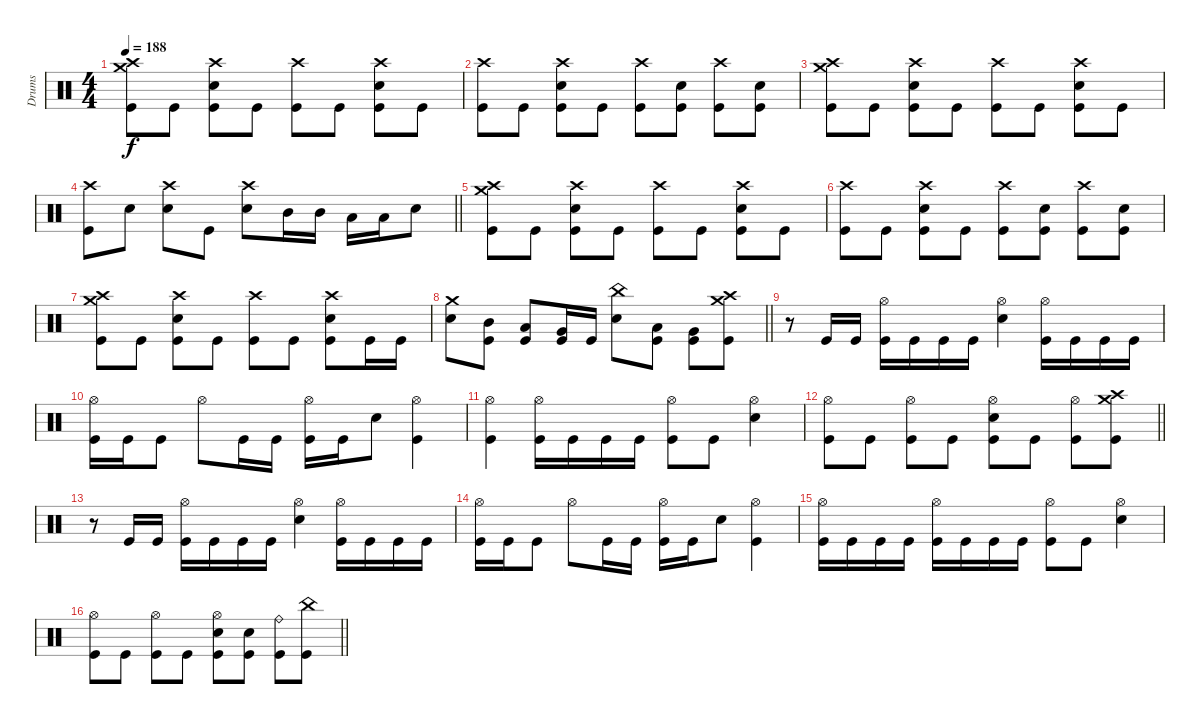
\track ("Drums" "Drums") {instrument percussion}
\staff
\articulation defaults
\ts (4 4)
\tempo 188
\clef neutral
\ks c
("Crash high (hit)" "Crash medium (hit)" "Kick (hit)").8{dy f} "Kick (hit)".8 ("Crash high (hit)" "Electric Snare (hit)" "Kick (hit)").8 "Kick (hit)".8 ("Crash high (hit)" "Kick (hit)").8 "Kick (hit)".8 ("Crash high (hit)" "Electric Snare (hit)" "Kick (hit)").8 "Kick (hit)".8 |
("Crash high (hit)" "Kick (hit)").8 "Kick (hit)".8 ("Crash high (hit)" "Electric Snare (hit)" "Kick (hit)").8 "Kick (hit)".8 ("Crash high (hit)" "Kick (hit)").8 ("Electric Snare (hit)" "Kick (hit)").8 ("Crash high (hit)" "Kick (hit)").8 ("Electric Snare (hit)" "Kick (hit)").8 |
("Crash high (hit)" "Crash medium (hit)" "Kick (hit)").8 "Kick (hit)".8 ("Crash high (hit)" "Electric Snare (hit)" "Kick (hit)").8 "Kick (hit)".8 ("Crash high (hit)" "Kick (hit)").8 "Kick (hit)".8 ("Crash high (hit)" "Electric Snare (hit)" "Kick (hit)").8 "Kick (hit)".8 |
\barLineRight lightlight
("Crash high (hit)" "Kick (hit)").8 "Electric Snare (hit)".8 ("Crash high (hit)" "Electric Snare (hit)").8 "Kick (hit)".8 ("Crash high (hit)" "Electric Snare (hit)").8 "Mid Tom (hit)".16 "Mid Tom (hit)".16 "Low Tom (hit)".16 "Low Tom (hit)".16 "Electric Snare (hit)".8 |
("Crash high (hit)" "Crash medium (hit)" "Kick (hit)").8 "Kick (hit)".8 ("Crash high (hit)" "Electric Snare (hit)" "Kick (hit)").8 "Kick (hit)".8 ("Crash high (hit)" "Kick (hit)").8 "Kick (hit)".8 ("Crash high (hit)" "Electric Snare (hit)" "Kick (hit)").8 "Kick (hit)".8 |
("Crash high (hit)" "Kick (hit)").8 "Kick (hit)".8 ("Crash high (hit)" "Electric Snare (hit)" "Kick (hit)").8 "Kick (hit)".8 ("Crash high (hit)" "Kick (hit)").8 ("Electric Snare (hit)" "Kick (hit)").8 ("Crash high (hit)" "Kick (hit)").8 ("Electric Snare (hit)" "Kick (hit)").8 |
("Crash high (hit)" "Crash medium (hit)" "Kick (hit)").8 "Kick (hit)".8 ("Crash high (hit)" "Electric Snare (hit)" "Kick (hit)").8 "Kick (hit)".8 ("Crash high (hit)" "Kick (hit)").8 "Kick (hit)".8 ("Crash high (hit)" "Electric Snare (hit)" "Kick (hit)").8 "Kick (hit)".16 "Kick (hit)".16 |
\barLineRight lightlight
("Crash medium (hit)" "Electric Snare (hit)").8 ("Mid Tom (hit)" "Kick (hit)").8 ("Low Tom (hit)" "Kick (hit)").8 ("Very Low Tom (hit)" "Kick (hit)").16 "Kick (hit)".16 ("China (hit)" "Electric Snare (hit)").8 ("Low Tom (hit)" "Kick (hit)").8 ("Very Low Tom (hit)" "Kick (hit)").8 ("Crash high (hit)" "Crash medium (hit)" "Kick (hit)").8 |
\section ("" "")
r.8 "Kick (hit)".16 "Kick (hit)".16 ("Hi-Hat (open)" "Kick (hit)").16 "Kick (hit)".16 "Kick (hit)".16 "Kick (hit)".16 ("Hi-Hat (open)" "Electric Snare (hit)").4 ("Hi-Hat (open)" "Kick (hit)").16 "Kick (hit)".16 "Kick (hit)".16 "Kick (hit)".16 |
("Hi-Hat (open)" "Kick (hit)").16 "Kick (hit)".16 "Kick (hit)".8 "Hi-Hat (open)".8 "Kick (hit)".16 "Kick (hit)".16 ("Hi-Hat (open)" "Kick (hit)").16 "Kick (hit)".16 "Electric Snare (hit)".8 ("Hi-Hat (open)" "Kick (hit)").4 |
("Hi-Hat (open)" "Kick (hit)").4 ("Hi-Hat (open)" "Kick (hit)").16 "Kick (hit)".16 "Kick (hit)".16 "Kick (hit)".16 ("Hi-Hat (open)" "Kick (hit)").8 "Kick (hit)".8 ("Hi-Hat (open)" "Electric Snare (hit)").4 |
\barLineRight lightlight
("Hi-Hat (open)" "Kick (hit)").8 "Kick (hit)".8 ("Hi-Hat (open)" "Kick (hit)").8 "Kick (hit)".8 ("Hi-Hat (open)" "Electric Snare (hit)" "Kick (hit)").8 "Kick (hit)".8 ("Hi-Hat (open)" "Kick (hit)").8 ("Crash high (hit)" "Crash medium (hit)" "Kick (hit)").8 |
r.8 "Kick (hit)".16 "Kick (hit)".16 ("Hi-Hat (open)" "Kick (hit)").16 "Kick (hit)".16 "Kick (hit)".16 "Kick (hit)".16 ("Hi-Hat (open)" "Electric Snare (hit)").4 ("Hi-Hat (open)" "Kick (hit)").16 "Kick (hit)".16 "Kick (hit)".16 "Kick (hit)".16 |
("Hi-Hat (open)" "Kick (hit)").16 "Kick (hit)".16 "Kick (hit)".8 "Hi-Hat (open)".8 "Kick (hit)".16 "Kick (hit)".16 ("Hi-Hat (open)" "Kick (hit)").16 "Kick (hit)".16 "Electric Snare (hit)".8 ("Hi-Hat (open)" "Kick (hit)").4 |
("Hi-Hat (open)" "Kick (hit)").16 "Kick (hit)".16 "Kick (hit)".16 "Kick (hit)".16 ("Hi-Hat (open)" "Kick (hit)").16 "Kick (hit)".16 "Kick (hit)".16 "Kick (hit)".16 ("Hi-Hat (open)" "Kick (hit)").8 "Kick (hit)".8 ("Hi-Hat (open)" "Electric Snare (hit)").4 |
\barLineRight lightlight
("Hi-Hat (open)" "Kick (hit)").8 "Kick (hit)".8 ("Hi-Hat (open)" "Kick (hit)").8 "Kick (hit)".8 ("Hi-Hat (open)" "Electric Snare (hit)" "Kick (hit)").8 ("Electric Snare (hit)" "Kick (hit)").8 ("Ride (bell)" "Kick (hit)").8 ("China (hit)" "Kick (hit)").8
